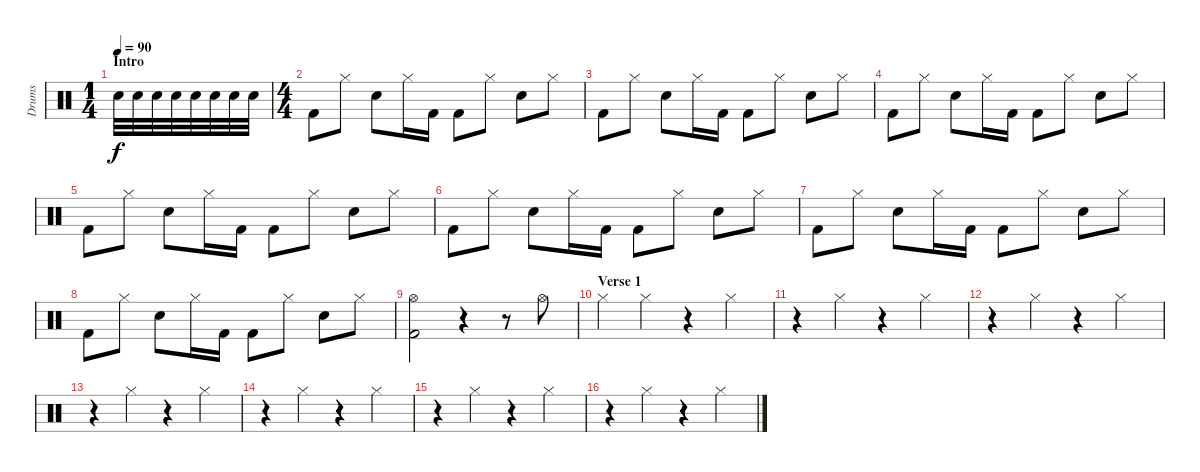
\track ("Drums" "Drums") {instrument percussion}
\staff {score}
\articulation defaults
\ts (1 4)
\section ("" "Intro")
\tempo 90
\clef neutral
\ks c "Snare (hit) 2".32{dy f} "Snare (hit) 2".32 "Snare (hit) 2".32 "Snare (hit) 2".32 "Snare (hit) 2".32 "Snare (hit) 2".32 "Snare (hit) 2".32 "Snare (hit) 2".32
|
\ts (4 4)
"Kick (hit) 2".8 "Hi-Hat (closed)".8 "Snare (hit) 2".8 "Hi-Hat (closed)".16 "Kick (hit) 2".16 "Kick (hit) 2".8 "Hi-Hat (closed)".8 "Snare (hit) 2".8 "Hi-Hat (closed)".8 |
"Kick (hit) 2".8 "Hi-Hat (closed)".8 "Snare (hit) 2".8 "Hi-Hat (closed)".16 "Kick (hit) 2".16 "Kick (hit) 2".8 "Hi-Hat (closed)".8 "Snare (hit) 2".8 "Hi-Hat (closed)".8 |
"Kick (hit) 2".8 "Hi-Hat (closed)".8 "Snare (hit) 2".8 "Hi-Hat (closed)".16 "Kick (hit) 2".16 "Kick (hit) 2".8 "Hi-Hat (closed)".8 "Snare (hit) 2".8 "Hi-Hat (closed)".8 |
"Kick (hit) 2".8 "Hi-Hat (closed)".8 "Snare (hit) 2".8 "Hi-Hat (closed)".16 "Kick (hit) 2".16 "Kick (hit) 2".8 "Hi-Hat (closed)".8 "Snare (hit) 2".8 "Hi-Hat (closed)".8 |
"Kick (hit) 2".8 "Hi-Hat (closed)".8 "Snare (hit) 2".8 "Hi-Hat (closed)".16 "Kick (hit) 2".16 "Kick (hit) 2".8 "Hi-Hat (closed)".8 "Snare (hit) 2".8 "Hi-Hat (closed)".8 |
"Kick (hit) 2".8 "Hi-Hat (closed)".8 "Snare (hit) 2".8 "Hi-Hat (closed)".16 "Kick (hit) 2".16 "Kick (hit) 2".8 "Hi-Hat (closed)".8 "Snare (hit) 2".8 "Hi-Hat (closed)".8 |
"Kick (hit) 2".8 "Hi-Hat (closed)".8 "Snare (hit) 2".8 "Hi-Hat (closed)".16 "Kick (hit) 2".16 "Kick (hit) 2".8 "Hi-Hat (closed)".8 "Snare (hit) 2".8 "Hi-Hat (closed)".8 |
("Kick (hit) 2" "Hi-Hat (open)").2 r.4 r.8 "Hi-Hat (open)".8 |
\section ("" "Verse 1")
"Hi-Hat (closed)".4 "Hi-Hat (closed)".4 r.4 "Hi-Hat (closed)".4 |
r.4 "Hi-Hat (closed)".4 r.4 "Hi-Hat (closed)".4 |
r.4 "Hi-Hat (closed)".4 r.4 "Hi-Hat (closed)".4 |
r.4 "Hi-Hat (closed)".4 r.4 "Hi-Hat (closed)".4 |
r.4 "Hi-Hat (closed)".4 r.4 "Hi-Hat (closed)".4 |
r.4 "Hi-Hat (closed)".4 r.4 "Hi-Hat (closed)".4 |
r.4 "Hi-Hat (closed)".4 r.4 "Hi-Hat (closed)".4
